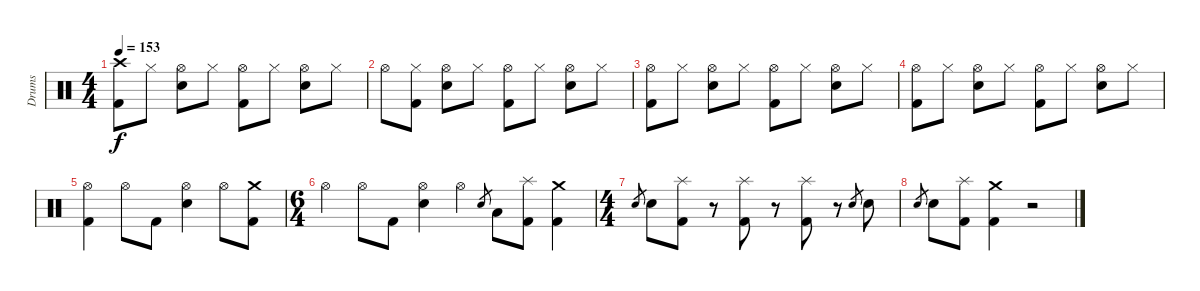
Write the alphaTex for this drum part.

\track ("Drums" "Drums") {instrument percussion}
\staff {score}
\articulation defaults
\ts (4 4)
\tempo 153
\clef neutral
\ks c
("Crash high (hit)" "Kick (hit) 2").8{dy f} "Hi-Hat (closed)".8 ("Hi-Hat (open)" "Electric Snare (hit)").8 "Hi-Hat (closed)".8 ("Hi-Hat (open)" "Kick (hit) 2").8 "Hi-Hat (closed)".8 ("Hi-Hat (open)" "Electric Snare (hit)").8 "Hi-Hat (closed)".8 |
"Hi-Hat (open)".8 ("Hi-Hat (closed)" "Kick (hit) 2").8 ("Hi-Hat (open)" "Electric Snare (hit)").8 "Hi-Hat (closed)".8 ("Hi-Hat (open)" "Kick (hit) 2").8 "Hi-Hat (closed)".8 ("Hi-Hat (open)" "Electric Snare (hit)").8 "Hi-Hat (closed)".8 |
("Hi-Hat (open)" "Kick (hit) 2").8 "Hi-Hat (closed)".8 ("Hi-Hat (open)" "Electric Snare (hit)").8 "Hi-Hat (closed)".8 ("Hi-Hat (open)" "Kick (hit) 2").8 "Hi-Hat (closed)".8 ("Hi-Hat (open)" "Electric Snare (hit)").8 "Hi-Hat (closed)".8 |
("Hi-Hat (open)" "Kick (hit) 2").8 "Hi-Hat (closed)".8 ("Hi-Hat (open)" "Electric Snare (hit)").8 "Hi-Hat (closed)".8 ("Hi-Hat (open)" "Kick (hit) 2").8 "Hi-Hat (closed)".8 ("Hi-Hat (open)" "Electric Snare (hit)").8 "Hi-Hat (closed)".8 |
("Hi-Hat (open)" "Kick (hit) 2").4 "Hi-Hat (open)".8 "Kick (hit) 2".8 ("Hi-Hat (open)" "Electric Snare (hit)").4 "Hi-Hat (open)".8 ("Crash medium (hit)" "Kick (hit) 2").8 |
\ts (6 4)
"Hi-Hat (open)".4 "Hi-Hat (open)".8 "Kick (hit) 2".8 ("Hi-Hat (open)" "Electric Snare (hit)").4 "Hi-Hat (open)".4 "Electric Snare (hit)".8{gr} "Low Tom (hit)".8 ("Splash (hit)" "Kick (hit) 2").8 ("Crash medium (hit)" "Kick (hit) 2").4 |
\ts (4 4)
"Electric Snare (hit)".8{gr} "Electric Snare (hit)".8 ("Splash (hit)" "Kick (hit) 2").8 r.8 ("Splash (hit)" "Kick (hit) 2").8 r.8 ("Splash (hit)" "Kick (hit) 2").8 r.8 "Electric Snare (hit)".8{gr} "Electric Snare (hit)".8 |
"Electric Snare (hit)".8{gr} "Electric Snare (hit)".8 ("Splash (hit)" "Kick (hit) 2").8 ("Crash medium (hit)" "Kick (hit) 2").4 r.2
